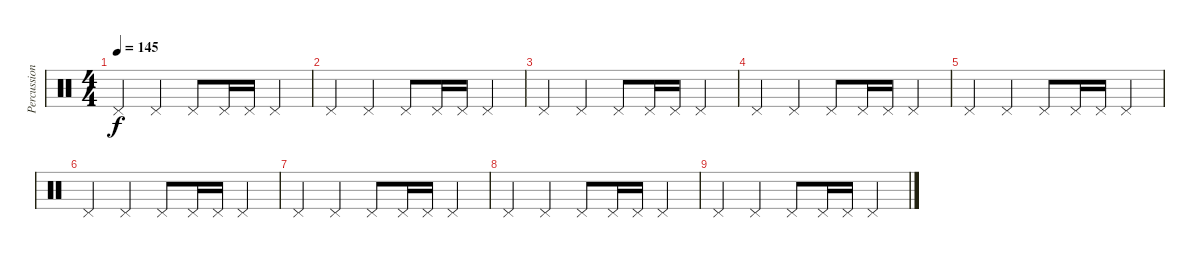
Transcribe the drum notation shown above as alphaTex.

\track ("Percussion" "Percussion") {instrument percussion}
\staff {score}
\articulation defaults
\ts (4 4)
\tempo 145
\clef neutral
\ks c "Pedal Hi-Hat (hit)".4{dy f} "Pedal Hi-Hat (hit)".4 "Pedal Hi-Hat (hit)".8 "Pedal Hi-Hat (hit)".16 "Pedal Hi-Hat (hit)".16 "Pedal Hi-Hat (hit)".4
|
"Pedal Hi-Hat (hit)".4 "Pedal Hi-Hat (hit)".4 "Pedal Hi-Hat (hit)".8 "Pedal Hi-Hat (hit)".16 "Pedal Hi-Hat (hit)".16 "Pedal Hi-Hat (hit)".4 |
"Pedal Hi-Hat (hit)".4 "Pedal Hi-Hat (hit)".4 "Pedal Hi-Hat (hit)".8 "Pedal Hi-Hat (hit)".16 "Pedal Hi-Hat (hit)".16 "Pedal Hi-Hat (hit)".4 |
"Pedal Hi-Hat (hit)".4 "Pedal Hi-Hat (hit)".4 "Pedal Hi-Hat (hit)".8 "Pedal Hi-Hat (hit)".16 "Pedal Hi-Hat (hit)".16 "Pedal Hi-Hat (hit)".4 |
"Pedal Hi-Hat (hit)".4 "Pedal Hi-Hat (hit)".4 "Pedal Hi-Hat (hit)".8 "Pedal Hi-Hat (hit)".16 "Pedal Hi-Hat (hit)".16 "Pedal Hi-Hat (hit)".4 |
"Pedal Hi-Hat (hit)".4 "Pedal Hi-Hat (hit)".4 "Pedal Hi-Hat (hit)".8 "Pedal Hi-Hat (hit)".16 "Pedal Hi-Hat (hit)".16 "Pedal Hi-Hat (hit)".4 |
"Pedal Hi-Hat (hit)".4 "Pedal Hi-Hat (hit)".4 "Pedal Hi-Hat (hit)".8 "Pedal Hi-Hat (hit)".16 "Pedal Hi-Hat (hit)".16 "Pedal Hi-Hat (hit)".4 |
"Pedal Hi-Hat (hit)".4 "Pedal Hi-Hat (hit)".4 "Pedal Hi-Hat (hit)".8 "Pedal Hi-Hat (hit)".16 "Pedal Hi-Hat (hit)".16 "Pedal Hi-Hat (hit)".4 |
"Pedal Hi-Hat (hit)".4 "Pedal Hi-Hat (hit)".4 "Pedal Hi-Hat (hit)".8 "Pedal Hi-Hat (hit)".16 "Pedal Hi-Hat (hit)".16 "Pedal Hi-Hat (hit)".4
